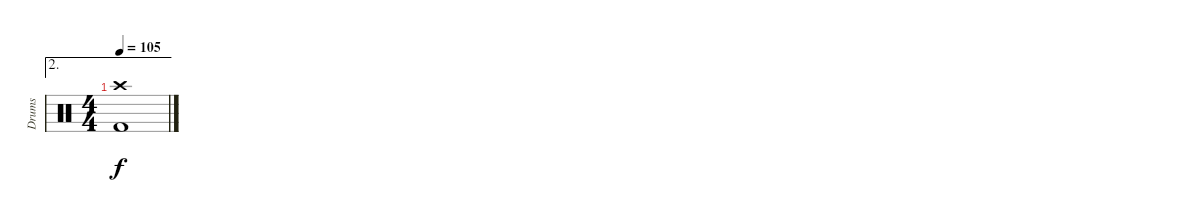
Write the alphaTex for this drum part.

\track ("Drums" "Drums") {instrument percussion}
\staff {score}
\articulation defaults
\ae 2
\ts (4 4)
\tempo 105
\clef neutral
\ks c
("Crash high (hit)" "Kick (hit) 2").1{dy f}
